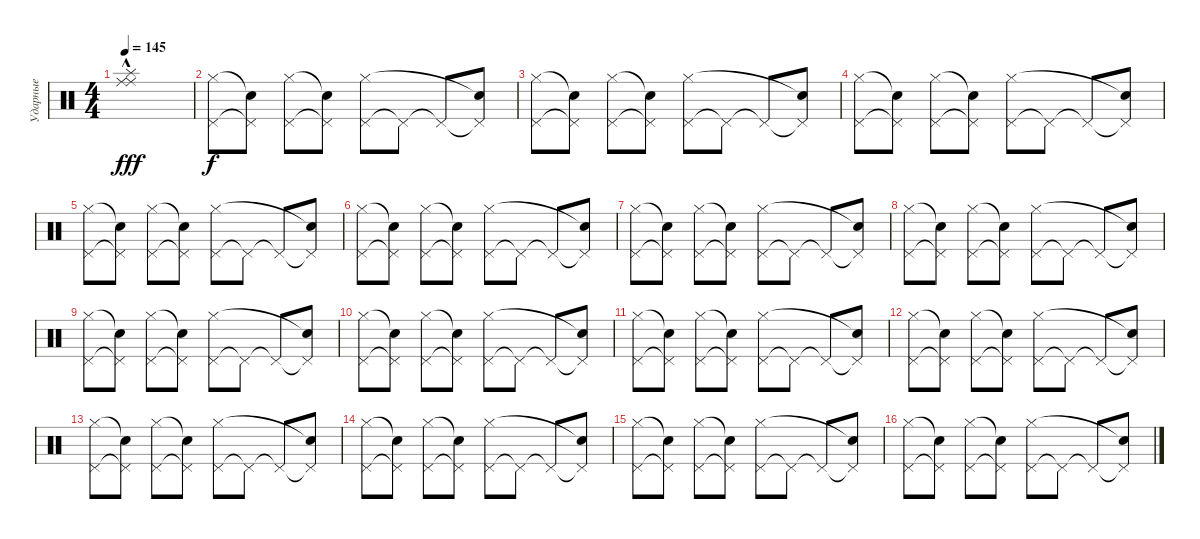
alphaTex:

\track ("Ударные" "Ударные") {instrument percussion}
\staff {score}
\articulation defaults
\ts (4 4)
\tempo 145
\clef neutral
\ks c
("Ride (middle)"{hac} "Ride (middle)"{hac} "Splash (hit)").1{dy fff} |
("Pedal Hi-Hat (hit)" "Hi-Hat (closed)").8{dy f} ("Pedal Hi-Hat (hit)"{t} "Snare (hit)"{t}).8 ("Pedal Hi-Hat (hit)" "Hi-Hat (closed)").8 ("Pedal Hi-Hat (hit)"{t} "Snare (hit)"{t}).8 ("Pedal Hi-Hat (hit)" "Hi-Hat (closed)").8 "Pedal Hi-Hat (hit)"{t}.8 "Pedal Hi-Hat (hit)"{t}.8 ("Pedal Hi-Hat (hit)"{t} "Snare (hit)"{t}).8 |
("Pedal Hi-Hat (hit)" "Hi-Hat (closed)").8 ("Pedal Hi-Hat (hit)"{t} "Snare (hit)"{t}).8 ("Pedal Hi-Hat (hit)" "Hi-Hat (closed)").8 ("Pedal Hi-Hat (hit)"{t} "Snare (hit)"{t}).8 ("Pedal Hi-Hat (hit)" "Hi-Hat (closed)").8 "Pedal Hi-Hat (hit)"{t}.8 "Pedal Hi-Hat (hit)"{t}.8 ("Pedal Hi-Hat (hit)"{t} "Snare (hit)"{t}).8 |
("Pedal Hi-Hat (hit)" "Hi-Hat (closed)").8 ("Pedal Hi-Hat (hit)"{t} "Snare (hit)"{t}).8 ("Pedal Hi-Hat (hit)" "Hi-Hat (closed)").8 ("Pedal Hi-Hat (hit)"{t} "Snare (hit)"{t}).8 ("Pedal Hi-Hat (hit)" "Hi-Hat (closed)").8 "Pedal Hi-Hat (hit)"{t}.8 "Pedal Hi-Hat (hit)"{t}.8 ("Pedal Hi-Hat (hit)"{t} "Snare (hit)"{t}).8 |
("Pedal Hi-Hat (hit)" "Hi-Hat (closed)").8 ("Pedal Hi-Hat (hit)"{t} "Snare (hit)"{t}).8 ("Pedal Hi-Hat (hit)" "Hi-Hat (closed)").8 ("Pedal Hi-Hat (hit)"{t} "Snare (hit)"{t}).8 ("Pedal Hi-Hat (hit)" "Hi-Hat (closed)").8 "Pedal Hi-Hat (hit)"{t}.8 "Pedal Hi-Hat (hit)"{t}.8 ("Pedal Hi-Hat (hit)"{t} "Snare (hit)"{t}).8 |
("Pedal Hi-Hat (hit)" "Hi-Hat (closed)").8 ("Pedal Hi-Hat (hit)"{t} "Snare (hit)"{t}).8 ("Pedal Hi-Hat (hit)" "Hi-Hat (closed)").8 ("Pedal Hi-Hat (hit)"{t} "Snare (hit)"{t}).8 ("Pedal Hi-Hat (hit)" "Hi-Hat (closed)").8 "Pedal Hi-Hat (hit)"{t}.8 "Pedal Hi-Hat (hit)"{t}.8 ("Pedal Hi-Hat (hit)"{t} "Snare (hit)"{t}).8 |
("Pedal Hi-Hat (hit)" "Hi-Hat (closed)").8 ("Pedal Hi-Hat (hit)"{t} "Snare (hit)"{t}).8 ("Pedal Hi-Hat (hit)" "Hi-Hat (closed)").8 ("Pedal Hi-Hat (hit)"{t} "Snare (hit)"{t}).8 ("Pedal Hi-Hat (hit)" "Hi-Hat (closed)").8 "Pedal Hi-Hat (hit)"{t}.8 "Pedal Hi-Hat (hit)"{t}.8 ("Pedal Hi-Hat (hit)"{t} "Snare (hit)"{t}).8 |
("Pedal Hi-Hat (hit)" "Hi-Hat (closed)").8 ("Pedal Hi-Hat (hit)"{t} "Snare (hit)"{t}).8 ("Pedal Hi-Hat (hit)" "Hi-Hat (closed)").8 ("Pedal Hi-Hat (hit)"{t} "Snare (hit)"{t}).8 ("Pedal Hi-Hat (hit)" "Hi-Hat (closed)").8 "Pedal Hi-Hat (hit)"{t}.8 "Pedal Hi-Hat (hit)"{t}.8 ("Pedal Hi-Hat (hit)"{t} "Snare (hit)"{t}).8 |
("Pedal Hi-Hat (hit)" "Hi-Hat (closed)").8 ("Pedal Hi-Hat (hit)"{t} "Snare (hit)"{t}).8 ("Pedal Hi-Hat (hit)" "Hi-Hat (closed)").8 ("Pedal Hi-Hat (hit)"{t} "Snare (hit)"{t}).8 ("Pedal Hi-Hat (hit)" "Hi-Hat (closed)").8 "Pedal Hi-Hat (hit)"{t}.8 "Pedal Hi-Hat (hit)"{t}.8 ("Pedal Hi-Hat (hit)"{t} "Snare (hit)"{t}).8 |
("Pedal Hi-Hat (hit)" "Hi-Hat (closed)").8 ("Pedal Hi-Hat (hit)"{t} "Snare (hit)"{t}).8 ("Pedal Hi-Hat (hit)" "Hi-Hat (closed)").8 ("Pedal Hi-Hat (hit)"{t} "Snare (hit)"{t}).8 ("Pedal Hi-Hat (hit)" "Hi-Hat (closed)").8 "Pedal Hi-Hat (hit)"{t}.8 "Pedal Hi-Hat (hit)"{t}.8 ("Pedal Hi-Hat (hit)"{t} "Snare (hit)"{t}).8 |
("Pedal Hi-Hat (hit)" "Hi-Hat (closed)").8 ("Pedal Hi-Hat (hit)"{t} "Snare (hit)"{t}).8 ("Pedal Hi-Hat (hit)" "Hi-Hat (closed)").8 ("Pedal Hi-Hat (hit)"{t} "Snare (hit)"{t}).8 ("Pedal Hi-Hat (hit)" "Hi-Hat (closed)").8 "Pedal Hi-Hat (hit)"{t}.8 "Pedal Hi-Hat (hit)"{t}.8 ("Pedal Hi-Hat (hit)"{t} "Snare (hit)"{t}).8 |
("Pedal Hi-Hat (hit)" "Hi-Hat (closed)").8 ("Pedal Hi-Hat (hit)"{t} "Snare (hit)"{t}).8 ("Pedal Hi-Hat (hit)" "Hi-Hat (closed)").8 ("Pedal Hi-Hat (hit)"{t} "Snare (hit)"{t}).8 ("Pedal Hi-Hat (hit)" "Hi-Hat (closed)").8 "Pedal Hi-Hat (hit)"{t}.8 "Pedal Hi-Hat (hit)"{t}.8 ("Pedal Hi-Hat (hit)"{t} "Snare (hit)"{t}).8 |
("Pedal Hi-Hat (hit)" "Hi-Hat (closed)").8 ("Pedal Hi-Hat (hit)"{t} "Snare (hit)"{t}).8 ("Pedal Hi-Hat (hit)" "Hi-Hat (closed)").8 ("Pedal Hi-Hat (hit)"{t} "Snare (hit)"{t}).8 ("Pedal Hi-Hat (hit)" "Hi-Hat (closed)").8 "Pedal Hi-Hat (hit)"{t}.8 "Pedal Hi-Hat (hit)"{t}.8 ("Pedal Hi-Hat (hit)"{t} "Snare (hit)"{t}).8 |
("Pedal Hi-Hat (hit)" "Hi-Hat (closed)").8 ("Pedal Hi-Hat (hit)"{t} "Snare (hit)"{t}).8 ("Pedal Hi-Hat (hit)" "Hi-Hat (closed)").8 ("Pedal Hi-Hat (hit)"{t} "Snare (hit)"{t}).8 ("Pedal Hi-Hat (hit)" "Hi-Hat (closed)").8 "Pedal Hi-Hat (hit)"{t}.8 "Pedal Hi-Hat (hit)"{t}.8 ("Pedal Hi-Hat (hit)"{t} "Snare (hit)"{t}).8 |
("Pedal Hi-Hat (hit)" "Hi-Hat (closed)").8 ("Pedal Hi-Hat (hit)"{t} "Snare (hit)"{t}).8 ("Pedal Hi-Hat (hit)" "Hi-Hat (closed)").8 ("Pedal Hi-Hat (hit)"{t} "Snare (hit)"{t}).8 ("Pedal Hi-Hat (hit)" "Hi-Hat (closed)").8 "Pedal Hi-Hat (hit)"{t}.8 "Pedal Hi-Hat (hit)"{t}.8 ("Pedal Hi-Hat (hit)"{t} "Snare (hit)"{t}).8 |
("Pedal Hi-Hat (hit)" "Hi-Hat (closed)").8 ("Pedal Hi-Hat (hit)"{t} "Snare (hit)"{t}).8 ("Pedal Hi-Hat (hit)" "Hi-Hat (closed)").8 ("Pedal Hi-Hat (hit)"{t} "Snare (hit)"{t}).8 ("Pedal Hi-Hat (hit)" "Hi-Hat (closed)").8 "Pedal Hi-Hat (hit)"{t}.8 "Pedal Hi-Hat (hit)"{t}.8 ("Pedal Hi-Hat (hit)"{t} "Snare (hit)"{t}).8
